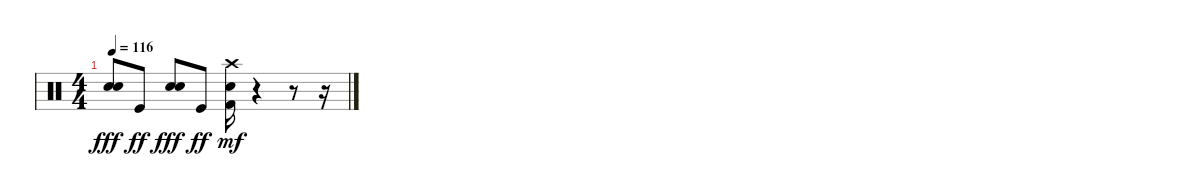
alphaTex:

\track "" {instrument percussion}
\staff {score}
\articulation defaults
\ts (4 4)
\tempo 116
\clef neutral
\ks c
("Snare (hit) 2" "Snare (hit) 2").8{dy fff} "Kick (hit)".8{dy ff} ("Snare (hit) 2" "Snare (hit) 2").8{dy fff} "Kick (hit)".8{dy ff} ("Kick (hit) 2" "Crash high (hit)" "Snare (hit) 2").16{dy mf} r.4 r.8 r.16
